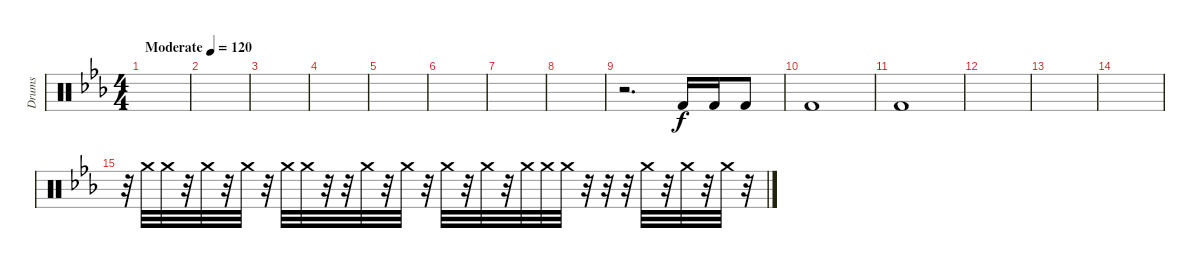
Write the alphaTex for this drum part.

\track ("Drums" "Drums") {instrument percussion}
\staff {score}
\articulation defaults
\ts (4 4)
\tempo (120 "Moderate")
\clef neutral
\ks eb
|
|
|
|
|
|
|
|
r.2{d} "Kick (hit) 2".16 "Kick (hit) 2".16 "Kick (hit) 2".8 |
"Kick (hit) 2".1 |
"Kick (hit) 2".1 |
|
|
|
r.32 "Crash medium (hit)".32{volume 8} "Crash medium (hit)".32 r.32 "Crash medium (hit)".32 r.32 "Crash medium (hit)".32 r.32 "Crash medium (hit)".32 "Crash medium (hit)".32 r.32 r.32 "Crash medium (hit)".32 r.32 "Crash medium (hit)".32 r.32 "Crash medium (hit)".32 r.32 "Crash medium (hit)".32 r.32 "Crash medium (hit)".32 "Crash medium (hit)".32 "Crash medium (hit)".32 r.32 r.32 r.32 "Crash medium (hit)".32 r.32 "Crash medium (hit)".32 r.32 "Crash medium (hit)".32 r.32
